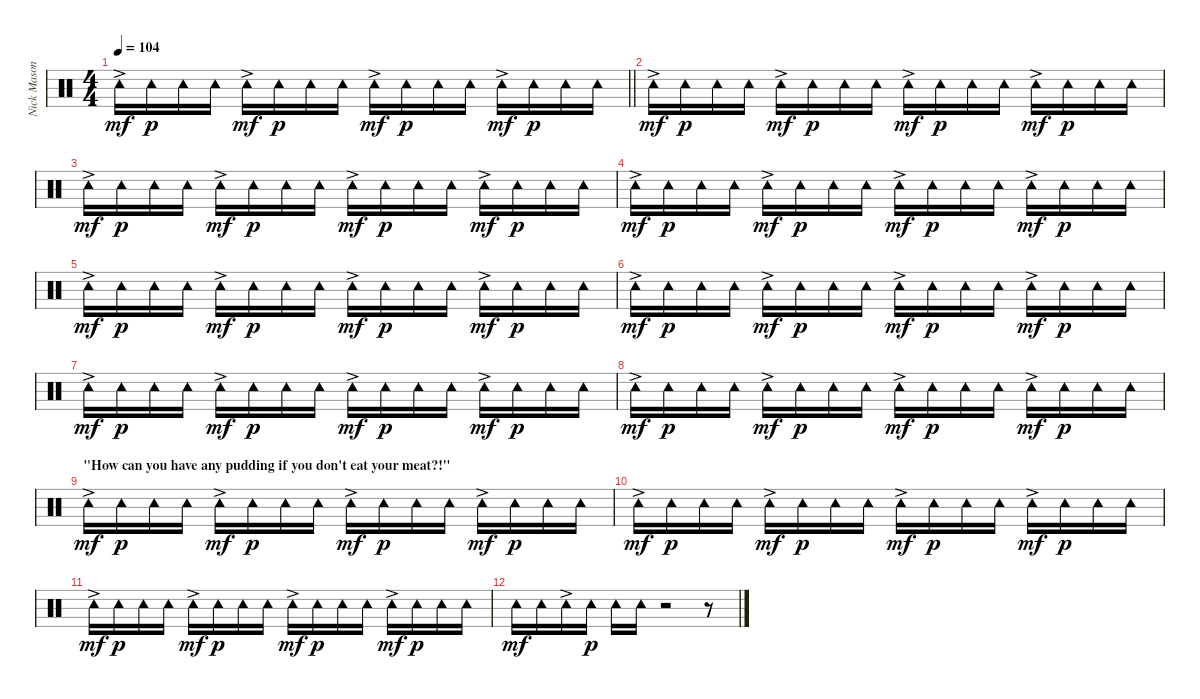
\track ("Nick Mason | Tambourine" "Nick Mason") {instrument percussion}
\staff {score}
\articulation defaults
\ts (4 4)
\tempo 104
\clef neutral
\barLineRight lightlight
\ks c "Tambourine (hit)"{ac}.16{dy mf} "Tambourine (hit)".16{dy p} "Tambourine (hit)".16 "Tambourine (hit)".16 "Tambourine (hit)"{ac}.16{dy mf} "Tambourine (hit)".16{dy p} "Tambourine (hit)".16 "Tambourine (hit)".16 "Tambourine (hit)"{ac}.16{dy mf} "Tambourine (hit)".16{dy p} "Tambourine (hit)".16 "Tambourine (hit)".16 "Tambourine (hit)"{ac}.16{dy mf} "Tambourine (hit)".16{dy p} "Tambourine (hit)".16 "Tambourine (hit)".16
|
"Tambourine (hit)"{ac}.16{dy mf} "Tambourine (hit)".16{dy p} "Tambourine (hit)".16 "Tambourine (hit)".16 "Tambourine (hit)"{ac}.16{dy mf} "Tambourine (hit)".16{dy p} "Tambourine (hit)".16 "Tambourine (hit)".16 "Tambourine (hit)"{ac}.16{dy mf} "Tambourine (hit)".16{dy p} "Tambourine (hit)".16 "Tambourine (hit)".16 "Tambourine (hit)"{ac}.16{dy mf} "Tambourine (hit)".16{dy p} "Tambourine (hit)".16 "Tambourine (hit)".16 |
"Tambourine (hit)"{ac}.16{dy mf} "Tambourine (hit)".16{dy p} "Tambourine (hit)".16 "Tambourine (hit)".16 "Tambourine (hit)"{ac}.16{dy mf} "Tambourine (hit)".16{dy p} "Tambourine (hit)".16 "Tambourine (hit)".16 "Tambourine (hit)"{ac}.16{dy mf} "Tambourine (hit)".16{dy p} "Tambourine (hit)".16 "Tambourine (hit)".16 "Tambourine (hit)"{ac}.16{dy mf} "Tambourine (hit)".16{dy p} "Tambourine (hit)".16 "Tambourine (hit)".16 |
"Tambourine (hit)"{ac}.16{dy mf} "Tambourine (hit)".16{dy p} "Tambourine (hit)".16 "Tambourine (hit)".16 "Tambourine (hit)"{ac}.16{dy mf} "Tambourine (hit)".16{dy p} "Tambourine (hit)".16 "Tambourine (hit)".16 "Tambourine (hit)"{ac}.16{dy mf} "Tambourine (hit)".16{dy p} "Tambourine (hit)".16 "Tambourine (hit)".16 "Tambourine (hit)"{ac}.16{dy mf} "Tambourine (hit)".16{dy p} "Tambourine (hit)".16 "Tambourine (hit)".16 |
"Tambourine (hit)"{ac}.16{dy mf} "Tambourine (hit)".16{dy p} "Tambourine (hit)".16 "Tambourine (hit)".16 "Tambourine (hit)"{ac}.16{dy mf} "Tambourine (hit)".16{dy p} "Tambourine (hit)".16 "Tambourine (hit)".16 "Tambourine (hit)"{ac}.16{dy mf} "Tambourine (hit)".16{dy p} "Tambourine (hit)".16 "Tambourine (hit)".16 "Tambourine (hit)"{ac}.16{dy mf} "Tambourine (hit)".16{dy p} "Tambourine (hit)".16 "Tambourine (hit)".16 |
"Tambourine (hit)"{ac}.16{dy mf} "Tambourine (hit)".16{dy p} "Tambourine (hit)".16 "Tambourine (hit)".16 "Tambourine (hit)"{ac}.16{dy mf} "Tambourine (hit)".16{dy p} "Tambourine (hit)".16 "Tambourine (hit)".16 "Tambourine (hit)"{ac}.16{dy mf} "Tambourine (hit)".16{dy p} "Tambourine (hit)".16 "Tambourine (hit)".16 "Tambourine (hit)"{ac}.16{dy mf} "Tambourine (hit)".16{dy p} "Tambourine (hit)".16 "Tambourine (hit)".16 |
"Tambourine (hit)"{ac}.16{dy mf} "Tambourine (hit)".16{dy p} "Tambourine (hit)".16 "Tambourine (hit)".16 "Tambourine (hit)"{ac}.16{dy mf} "Tambourine (hit)".16{dy p} "Tambourine (hit)".16 "Tambourine (hit)".16 "Tambourine (hit)"{ac}.16{dy mf} "Tambourine (hit)".16{dy p} "Tambourine (hit)".16 "Tambourine (hit)".16 "Tambourine (hit)"{ac}.16{dy mf} "Tambourine (hit)".16{dy p} "Tambourine (hit)".16 "Tambourine (hit)".16 |
"Tambourine (hit)"{ac}.16{dy mf} "Tambourine (hit)".16{dy p} "Tambourine (hit)".16 "Tambourine (hit)".16 "Tambourine (hit)"{ac}.16{dy mf} "Tambourine (hit)".16{dy p} "Tambourine (hit)".16 "Tambourine (hit)".16 "Tambourine (hit)"{ac}.16{dy mf} "Tambourine (hit)".16{dy p} "Tambourine (hit)".16 "Tambourine (hit)".16 "Tambourine (hit)"{ac}.16{dy mf} "Tambourine (hit)".16{dy p} "Tambourine (hit)".16 "Tambourine (hit)".16 |
\section ("" "\"How can you have any pudding if you don't eat your meat?!\"")
"Tambourine (hit)"{ac}.16{dy mf} "Tambourine (hit)".16{dy p} "Tambourine (hit)".16 "Tambourine (hit)".16 "Tambourine (hit)"{ac}.16{dy mf} "Tambourine (hit)".16{dy p} "Tambourine (hit)".16 "Tambourine (hit)".16 "Tambourine (hit)"{ac}.16{dy mf} "Tambourine (hit)".16{dy p} "Tambourine (hit)".16 "Tambourine (hit)".16 "Tambourine (hit)"{ac}.16{dy mf} "Tambourine (hit)".16{dy p} "Tambourine (hit)".16 "Tambourine (hit)".16 |
"Tambourine (hit)"{ac}.16{dy mf} "Tambourine (hit)".16{dy p} "Tambourine (hit)".16 "Tambourine (hit)".16 "Tambourine (hit)"{ac}.16{dy mf} "Tambourine (hit)".16{dy p} "Tambourine (hit)".16 "Tambourine (hit)".16 "Tambourine (hit)"{ac}.16{dy mf} "Tambourine (hit)".16{dy p} "Tambourine (hit)".16 "Tambourine (hit)".16 "Tambourine (hit)"{ac}.16{dy mf} "Tambourine (hit)".16{dy p} "Tambourine (hit)".16 "Tambourine (hit)".16 |
"Tambourine (hit)"{ac}.16{dy mf} "Tambourine (hit)".16{dy p} "Tambourine (hit)".16 "Tambourine (hit)".16 "Tambourine (hit)"{ac}.16{dy mf} "Tambourine (hit)".16{dy p} "Tambourine (hit)".16 "Tambourine (hit)".16 "Tambourine (hit)"{ac}.16{dy mf} "Tambourine (hit)".16{dy p} "Tambourine (hit)".16 "Tambourine (hit)".16 "Tambourine (hit)"{ac}.16{dy mf} "Tambourine (hit)".16{dy p} "Tambourine (hit)".16 "Tambourine (hit)".16 |
"Tambourine (hit)".16{dy mf} "Tambourine (hit)".16 "Tambourine (hit)"{ac}.16 "Tambourine (hit)".16{dy p} "Tambourine (hit)".16 "Tambourine (hit)".16 r.2 r.8
